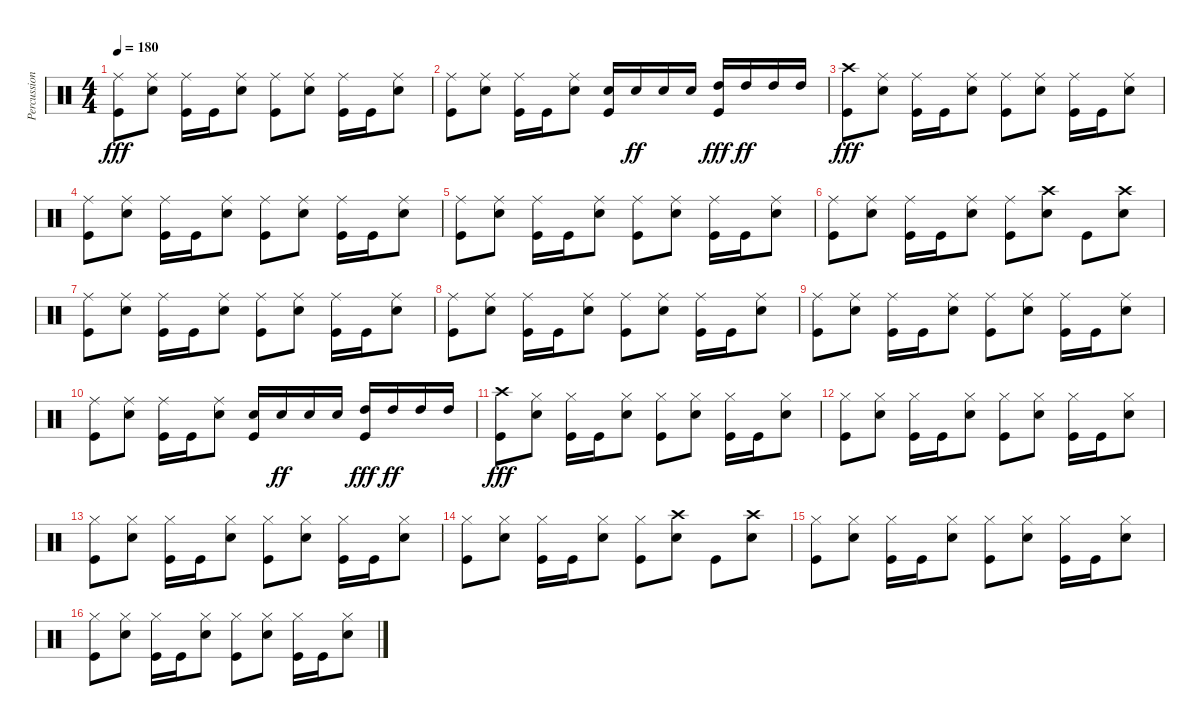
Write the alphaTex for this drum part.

\track ("Percussion" "Percussion") {instrument percussion}
\staff {score}
\articulation defaults
\ts (4 4)
\tempo 180
\clef neutral
\ks c
("Kick (hit)" "Ride (middle)").8{dy fff} ("Snare (hit) 2" "Ride (middle)").8 ("Kick (hit)" "Ride (middle)").16 "Kick (hit)".16 ("Snare (hit) 2" "Ride (middle)").8 ("Kick (hit)" "Ride (middle)").8 ("Snare (hit) 2" "Ride (middle)").8 ("Kick (hit)" "Ride (middle)").16 "Kick (hit)".16 ("Snare (hit) 2" "Ride (middle)").8 |
("Kick (hit)" "Ride (middle)").8 ("Snare (hit) 2" "Ride (middle)").8 ("Kick (hit)" "Ride (middle)").16 "Kick (hit)".16 ("Snare (hit) 2" "Ride (middle)").8 ("Kick (hit)" "Snare (hit) 2").16 "Snare (hit) 2".16{dy ff} "Snare (hit) 2".16 "Snare (hit) 2".16 ("Kick (hit)" "High Tom (hit)").16{dy fff} "High Tom (hit)".16{dy ff} "High Tom (hit)".16 "High Tom (hit)".16 |
("Kick (hit)" "Crash high (hit)").8{dy fff} ("Snare (hit) 2" "Ride (middle)").8 ("Kick (hit)" "Ride (middle)").16 "Kick (hit)".16 ("Snare (hit) 2" "Ride (middle)").8 ("Kick (hit)" "Ride (middle)").8 ("Snare (hit) 2" "Ride (middle)").8 ("Kick (hit)" "Ride (middle)").16 "Kick (hit)".16 ("Snare (hit) 2" "Ride (middle)").8 |
("Kick (hit)" "Ride (middle)").8 ("Snare (hit) 2" "Ride (middle)").8 ("Kick (hit)" "Ride (middle)").16 "Kick (hit)".16 ("Snare (hit) 2" "Ride (middle)").8 ("Kick (hit)" "Ride (middle)").8 ("Snare (hit) 2" "Ride (middle)").8 ("Kick (hit)" "Ride (middle)").16 "Kick (hit)".16 ("Snare (hit) 2" "Ride (middle)").8 |
("Kick (hit)" "Ride (middle)").8 ("Snare (hit) 2" "Ride (middle)").8 ("Kick (hit)" "Ride (middle)").16 "Kick (hit)".16 ("Snare (hit) 2" "Ride (middle)").8 ("Kick (hit)" "Ride (middle)").8 ("Snare (hit) 2" "Ride (middle)").8 ("Kick (hit)" "Ride (middle)").16 "Kick (hit)".16 ("Snare (hit) 2" "Ride (middle)").8 |
("Kick (hit)" "Ride (middle)").8 ("Snare (hit) 2" "Ride (middle)").8 ("Kick (hit)" "Ride (middle)").16 "Kick (hit)".16 ("Snare (hit) 2" "Ride (middle)").8 ("Kick (hit)" "Ride (middle)").8 ("Snare (hit) 2" "Crash high (hit)").8 "Kick (hit)".8 ("Snare (hit) 2" "Crash high (hit)").8 |
("Kick (hit)" "Ride (middle)").8 ("Snare (hit) 2" "Ride (middle)").8 ("Kick (hit)" "Ride (middle)").16 "Kick (hit)".16 ("Snare (hit) 2" "Ride (middle)").8 ("Kick (hit)" "Ride (middle)").8 ("Snare (hit) 2" "Ride (middle)").8 ("Kick (hit)" "Ride (middle)").16 "Kick (hit)".16 ("Snare (hit) 2" "Ride (middle)").8 |
("Kick (hit)" "Ride (middle)").8 ("Snare (hit) 2" "Ride (middle)").8 ("Kick (hit)" "Ride (middle)").16 "Kick (hit)".16 ("Snare (hit) 2" "Ride (middle)").8 ("Kick (hit)" "Ride (middle)").8 ("Snare (hit) 2" "Ride (middle)").8 ("Kick (hit)" "Ride (middle)").16 "Kick (hit)".16 ("Snare (hit) 2" "Ride (middle)").8 |
("Kick (hit)" "Ride (middle)").8 ("Snare (hit) 2" "Ride (middle)").8 ("Kick (hit)" "Ride (middle)").16 "Kick (hit)".16 ("Snare (hit) 2" "Ride (middle)").8 ("Kick (hit)" "Ride (middle)").8 ("Snare (hit) 2" "Ride (middle)").8 ("Kick (hit)" "Ride (middle)").16 "Kick (hit)".16 ("Snare (hit) 2" "Ride (middle)").8 |
("Kick (hit)" "Ride (middle)").8 ("Snare (hit) 2" "Ride (middle)").8 ("Kick (hit)" "Ride (middle)").16 "Kick (hit)".16 ("Snare (hit) 2" "Ride (middle)").8 ("Kick (hit)" "Snare (hit) 2").16 "Snare (hit) 2".16{dy ff} "Snare (hit) 2".16 "Snare (hit) 2".16 ("Kick (hit)" "High Tom (hit)").16{dy fff} "High Tom (hit)".16{dy ff} "High Tom (hit)".16 "High Tom (hit)".16 |
("Kick (hit)" "Crash high (hit)").8{dy fff} ("Snare (hit) 2" "Hi-Hat (closed)").8 ("Kick (hit)" "Hi-Hat (closed)").16 "Kick (hit)".16 ("Snare (hit) 2" "Hi-Hat (closed)").8 ("Kick (hit)" "Hi-Hat (closed)").8 ("Snare (hit) 2" "Hi-Hat (closed)").8 ("Kick (hit)" "Hi-Hat (closed)").16 "Kick (hit)".16 ("Snare (hit) 2" "Hi-Hat (closed)").8 |
("Kick (hit)" "Hi-Hat (closed)").8 ("Snare (hit) 2" "Hi-Hat (closed)").8 ("Kick (hit)" "Hi-Hat (closed)").16 "Kick (hit)".16 ("Snare (hit) 2" "Hi-Hat (closed)").8 ("Kick (hit)" "Hi-Hat (closed)").8 ("Snare (hit) 2" "Hi-Hat (closed)").8 ("Kick (hit)" "Hi-Hat (closed)").16 "Kick (hit)".16 ("Snare (hit) 2" "Hi-Hat (closed)").8 |
("Kick (hit)" "Hi-Hat (closed)").8 ("Snare (hit) 2" "Hi-Hat (closed)").8 ("Kick (hit)" "Hi-Hat (closed)").16 "Kick (hit)".16 ("Snare (hit) 2" "Hi-Hat (closed)").8 ("Kick (hit)" "Hi-Hat (closed)").8 ("Snare (hit) 2" "Hi-Hat (closed)").8 ("Kick (hit)" "Hi-Hat (closed)").16 "Kick (hit)".16 ("Snare (hit) 2" "Hi-Hat (closed)").8 |
("Kick (hit)" "Hi-Hat (closed)").8 ("Snare (hit) 2" "Hi-Hat (closed)").8 ("Kick (hit)" "Hi-Hat (closed)").16 "Kick (hit)".16 ("Snare (hit) 2" "Hi-Hat (closed)").8 ("Kick (hit)" "Hi-Hat (closed)").8 ("Snare (hit) 2" "Crash high (hit)").8 "Kick (hit)".8 ("Snare (hit) 2" "Crash high (hit)").8 |
("Kick (hit)" "Hi-Hat (closed)").8 ("Snare (hit) 2" "Hi-Hat (closed)").8 ("Kick (hit)" "Hi-Hat (closed)").16 "Kick (hit)".16 ("Snare (hit) 2" "Hi-Hat (closed)").8 ("Kick (hit)" "Hi-Hat (closed)").8 ("Snare (hit) 2" "Hi-Hat (closed)").8 ("Kick (hit)" "Hi-Hat (closed)").16 "Kick (hit)".16 ("Snare (hit) 2" "Hi-Hat (closed)").8 |
("Kick (hit)" "Hi-Hat (closed)").8 ("Snare (hit) 2" "Hi-Hat (closed)").8 ("Kick (hit)" "Hi-Hat (closed)").16 "Kick (hit)".16 ("Snare (hit) 2" "Hi-Hat (closed)").8 ("Kick (hit)" "Hi-Hat (closed)").8 ("Snare (hit) 2" "Hi-Hat (closed)").8 ("Kick (hit)" "Hi-Hat (closed)").16 "Kick (hit)".16 ("Snare (hit) 2" "Hi-Hat (closed)").8
